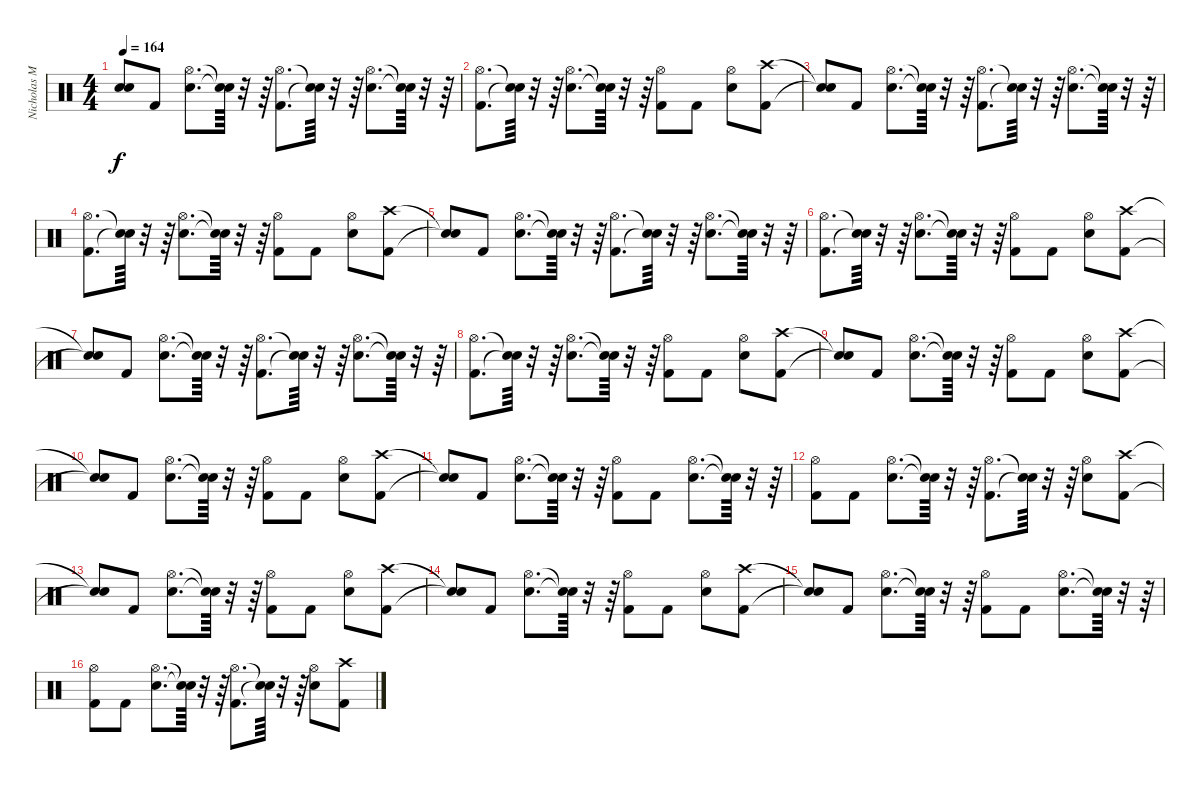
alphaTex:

\track ("Nicholas McBrain (Drums)" "Nicholas M") {instrument percussion}
\staff {score}
\articulation defaults
\ts (4 4)
\tempo 164
\clef neutral
\ks c
("Snare (hit)"{t} "Snare (hit)"{t}).8{dy f} "Kick (hit) 2".8 ("Snare (hit) 2" "Hi-Hat (open)").8{d} ("Snare (hit)"{t} "Snare (hit)"{t}).64 r.32 r.64 ("Kick (hit) 2" "Hi-Hat (open)").8{d} ("Snare (hit)"{t} "Snare (hit)"{t}).64 r.32 r.64 ("Snare (hit) 2" "Hi-Hat (open)").8{d} ("Snare (hit)"{t} "Snare (hit)"{t}).64 r.32 r.64 |
("Kick (hit) 2" "Hi-Hat (open)").8{d} ("Snare (hit)"{t} "Snare (hit)"{t}).64 r.32 r.64 ("Snare (hit) 2" "Hi-Hat (open)").8{d} ("Snare (hit)"{t} "Snare (hit)"{t}).64 r.32 r.64 ("Kick (hit) 2" "Hi-Hat (open)").8 "Kick (hit) 2".8 ("Snare (hit) 2" "Hi-Hat (open)").8 ("Kick (hit) 2" "Crash high (hit)").8 |
("Snare (hit)"{t} "Snare (hit)"{t}).8 "Kick (hit) 2".8 ("Snare (hit) 2" "Hi-Hat (open)").8{d} ("Snare (hit)"{t} "Snare (hit)"{t}).64 r.32 r.64 ("Kick (hit) 2" "Hi-Hat (open)").8{d} ("Snare (hit)"{t} "Snare (hit)"{t}).64 r.32 r.64 ("Snare (hit) 2" "Hi-Hat (open)").8{d} ("Snare (hit)"{t} "Snare (hit)"{t}).64 r.32 r.64 |
("Kick (hit) 2" "Hi-Hat (open)").8{d} ("Snare (hit)"{t} "Snare (hit)"{t}).64 r.32 r.64 ("Snare (hit) 2" "Hi-Hat (open)").8{d} ("Snare (hit)"{t} "Snare (hit)"{t}).64 r.32 r.64 ("Kick (hit) 2" "Hi-Hat (open)").8 "Kick (hit) 2".8 ("Snare (hit) 2" "Hi-Hat (open)").8 ("Kick (hit) 2" "Crash high (hit)").8 |
("Snare (hit)"{t} "Snare (hit)"{t}).8 "Kick (hit) 2".8 ("Snare (hit) 2" "Hi-Hat (open)").8{d} ("Snare (hit)"{t} "Snare (hit)"{t}).64 r.32 r.64 ("Kick (hit) 2" "Hi-Hat (open)").8{d} ("Snare (hit)"{t} "Snare (hit)"{t}).64 r.32 r.64 ("Snare (hit) 2" "Hi-Hat (open)").8{d} ("Snare (hit)"{t} "Snare (hit)"{t}).64 r.32 r.64 |
("Kick (hit) 2" "Hi-Hat (open)").8{d} ("Snare (hit)"{t} "Snare (hit)"{t}).64 r.32 r.64 ("Snare (hit) 2" "Hi-Hat (open)").8{d} ("Snare (hit)"{t} "Snare (hit)"{t}).64 r.32 r.64 ("Kick (hit) 2" "Hi-Hat (open)").8 "Kick (hit) 2".8 ("Snare (hit) 2" "Hi-Hat (open)").8 ("Kick (hit) 2" "Crash high (hit)").8 |
("Snare (hit)"{t} "Snare (hit)"{t}).8 "Kick (hit) 2".8 ("Snare (hit) 2" "Hi-Hat (open)").8{d} ("Snare (hit)"{t} "Snare (hit)"{t}).64 r.32 r.64 ("Kick (hit) 2" "Hi-Hat (open)").8{d} ("Snare (hit)"{t} "Snare (hit)"{t}).64 r.32 r.64 ("Snare (hit) 2" "Hi-Hat (open)").8{d} ("Snare (hit)"{t} "Snare (hit)"{t}).64 r.32 r.64 |
("Kick (hit) 2" "Hi-Hat (open)").8{d} ("Snare (hit)"{t} "Snare (hit)"{t}).64 r.32 r.64 ("Snare (hit) 2" "Hi-Hat (open)").8{d} ("Snare (hit)"{t} "Snare (hit)"{t}).64 r.32 r.64 ("Kick (hit) 2" "Hi-Hat (open)").8 "Kick (hit) 2".8 ("Snare (hit) 2" "Hi-Hat (open)").8 ("Kick (hit) 2" "Crash high (hit)").8 |
("Snare (hit)"{t} "Snare (hit)"{t}).8 "Kick (hit) 2".8 ("Snare (hit) 2" "Hi-Hat (open)").8{d} ("Snare (hit)"{t} "Snare (hit)"{t}).64 r.32 r.64 ("Kick (hit) 2" "Hi-Hat (open)").8 "Kick (hit) 2".8 ("Snare (hit) 2" "Hi-Hat (open)").8 ("Kick (hit) 2" "Crash high (hit)").8 |
("Snare (hit)"{t} "Snare (hit)"{t}).8 "Kick (hit) 2".8 ("Snare (hit) 2" "Hi-Hat (open)").8{d} ("Snare (hit)"{t} "Snare (hit)"{t}).64 r.32 r.64 ("Kick (hit) 2" "Hi-Hat (open)").8 "Kick (hit) 2".8 ("Snare (hit) 2" "Hi-Hat (open)").8 ("Kick (hit) 2" "Crash high (hit)").8 |
("Snare (hit)"{t} "Snare (hit)"{t}).8 "Kick (hit) 2".8 ("Snare (hit) 2" "Hi-Hat (open)").8{d} ("Snare (hit)"{t} "Snare (hit)"{t}).64 r.32 r.64 ("Kick (hit) 2" "Hi-Hat (open)").8 "Kick (hit) 2".8 ("Snare (hit) 2" "Hi-Hat (open)").8{d} ("Snare (hit)"{t} "Snare (hit)"{t}).64 r.32 r.64 |
("Kick (hit) 2" "Hi-Hat (open)").8 "Kick (hit) 2".8 ("Snare (hit) 2" "Hi-Hat (open)").8{d} ("Snare (hit)"{t} "Snare (hit)"{t}).64 r.32 r.64 ("Kick (hit) 2" "Hi-Hat (open)").8{d} ("Snare (hit)"{t} "Snare (hit)"{t}).64 r.32 r.64 ("Snare (hit) 2" "Hi-Hat (open)").8 ("Kick (hit) 2" "Crash high (hit)").8 |
("Snare (hit)"{t} "Snare (hit)"{t}).8 "Kick (hit) 2".8 ("Snare (hit) 2" "Hi-Hat (open)").8{d} ("Snare (hit)"{t} "Snare (hit)"{t}).64 r.32 r.64 ("Kick (hit) 2" "Hi-Hat (open)").8 "Kick (hit) 2".8 ("Snare (hit) 2" "Hi-Hat (open)").8 ("Kick (hit) 2" "Crash high (hit)").8 |
("Snare (hit)"{t} "Snare (hit)"{t}).8 "Kick (hit) 2".8 ("Snare (hit) 2" "Hi-Hat (open)").8{d} ("Snare (hit)"{t} "Snare (hit)"{t}).64 r.32 r.64 ("Kick (hit) 2" "Hi-Hat (open)").8 "Kick (hit) 2".8 ("Snare (hit) 2" "Hi-Hat (open)").8 ("Kick (hit) 2" "Crash high (hit)").8 |
("Snare (hit)"{t} "Snare (hit)"{t}).8 "Kick (hit) 2".8 ("Snare (hit) 2" "Hi-Hat (open)").8{d} ("Snare (hit)"{t} "Snare (hit)"{t}).64 r.32 r.64 ("Kick (hit) 2" "Hi-Hat (open)").8 "Kick (hit) 2".8 ("Snare (hit) 2" "Hi-Hat (open)").8{d} ("Snare (hit)"{t} "Snare (hit)"{t}).64 r.32 r.64 |
("Kick (hit) 2" "Hi-Hat (open)").8 "Kick (hit) 2".8 ("Snare (hit) 2" "Hi-Hat (open)").8{d} ("Snare (hit)"{t} "Snare (hit)"{t}).64 r.32 r.64 ("Kick (hit) 2" "Hi-Hat (open)").8{d} ("Snare (hit)"{t} "Snare (hit)"{t}).64 r.32 r.64 ("Snare (hit) 2" "Hi-Hat (open)").8 ("Kick (hit) 2" "Crash high (hit)").8
